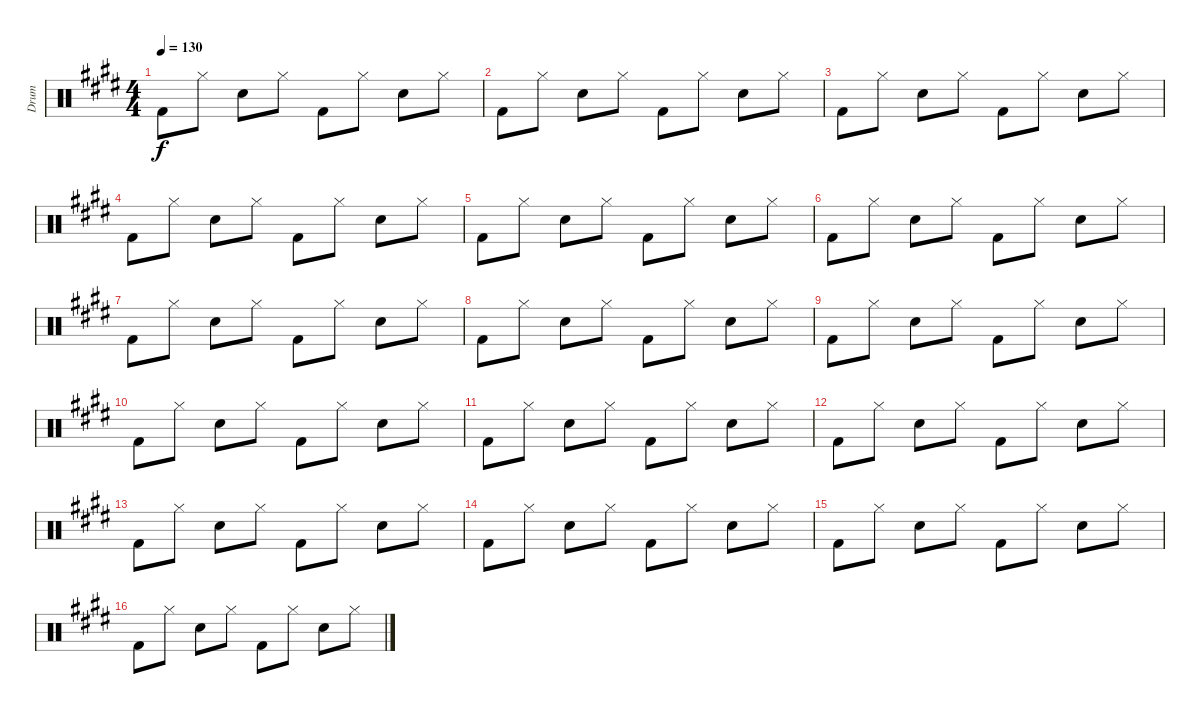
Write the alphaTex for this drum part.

\track ("Drum" "Drum") {instrument percussion}
\staff {score}
\articulation defaults
\ts (4 4)
\tempo 130
\clef neutral
\ks c#minor "Kick (hit) 2".8{dy f} "Hi-Hat (closed)".8 "Electric Snare (hit)".8 "Hi-Hat (closed)".8 "Kick (hit) 2".8 "Hi-Hat (closed)".8 "Electric Snare (hit)".8 "Hi-Hat (closed)".8
|
"Kick (hit) 2".8 "Hi-Hat (closed)".8 "Electric Snare (hit)".8 "Hi-Hat (closed)".8 "Kick (hit) 2".8 "Hi-Hat (closed)".8 "Electric Snare (hit)".8 "Hi-Hat (closed)".8 |
"Kick (hit) 2".8 "Hi-Hat (closed)".8 "Electric Snare (hit)".8 "Hi-Hat (closed)".8 "Kick (hit) 2".8 "Hi-Hat (closed)".8 "Electric Snare (hit)".8 "Hi-Hat (closed)".8 |
"Kick (hit) 2".8 "Hi-Hat (closed)".8 "Electric Snare (hit)".8 "Hi-Hat (closed)".8 "Kick (hit) 2".8 "Hi-Hat (closed)".8 "Electric Snare (hit)".8 "Hi-Hat (closed)".8 |
"Kick (hit) 2".8 "Hi-Hat (closed)".8 "Electric Snare (hit)".8 "Hi-Hat (closed)".8 "Kick (hit) 2".8 "Hi-Hat (closed)".8 "Electric Snare (hit)".8 "Hi-Hat (closed)".8 |
"Kick (hit) 2".8 "Hi-Hat (closed)".8 "Electric Snare (hit)".8 "Hi-Hat (closed)".8 "Kick (hit) 2".8 "Hi-Hat (closed)".8 "Electric Snare (hit)".8 "Hi-Hat (closed)".8 |
"Kick (hit) 2".8 "Hi-Hat (closed)".8 "Electric Snare (hit)".8 "Hi-Hat (closed)".8 "Kick (hit) 2".8 "Hi-Hat (closed)".8 "Electric Snare (hit)".8 "Hi-Hat (closed)".8 |
"Kick (hit) 2".8 "Hi-Hat (closed)".8 "Electric Snare (hit)".8 "Hi-Hat (closed)".8 "Kick (hit) 2".8 "Hi-Hat (closed)".8 "Electric Snare (hit)".8 "Hi-Hat (closed)".8 |
"Kick (hit) 2".8 "Hi-Hat (closed)".8 "Electric Snare (hit)".8 "Hi-Hat (closed)".8 "Kick (hit) 2".8 "Hi-Hat (closed)".8 "Electric Snare (hit)".8 "Hi-Hat (closed)".8 |
"Kick (hit) 2".8 "Hi-Hat (closed)".8 "Electric Snare (hit)".8 "Hi-Hat (closed)".8 "Kick (hit) 2".8 "Hi-Hat (closed)".8 "Electric Snare (hit)".8 "Hi-Hat (closed)".8 |
"Kick (hit) 2".8 "Hi-Hat (closed)".8 "Electric Snare (hit)".8 "Hi-Hat (closed)".8 "Kick (hit) 2".8 "Hi-Hat (closed)".8 "Electric Snare (hit)".8 "Hi-Hat (closed)".8 |
"Kick (hit) 2".8 "Hi-Hat (closed)".8 "Electric Snare (hit)".8 "Hi-Hat (closed)".8 "Kick (hit) 2".8 "Hi-Hat (closed)".8 "Electric Snare (hit)".8 "Hi-Hat (closed)".8 |
"Kick (hit) 2".8 "Hi-Hat (closed)".8 "Electric Snare (hit)".8 "Hi-Hat (closed)".8 "Kick (hit) 2".8 "Hi-Hat (closed)".8 "Electric Snare (hit)".8 "Hi-Hat (closed)".8 |
"Kick (hit) 2".8 "Hi-Hat (closed)".8 "Electric Snare (hit)".8 "Hi-Hat (closed)".8 "Kick (hit) 2".8 "Hi-Hat (closed)".8 "Electric Snare (hit)".8 "Hi-Hat (closed)".8 |
"Kick (hit) 2".8 "Hi-Hat (closed)".8 "Electric Snare (hit)".8 "Hi-Hat (closed)".8 "Kick (hit) 2".8 "Hi-Hat (closed)".8 "Electric Snare (hit)".8 "Hi-Hat (closed)".8 |
"Kick (hit) 2".8 "Hi-Hat (closed)".8 "Electric Snare (hit)".8 "Hi-Hat (closed)".8 "Kick (hit) 2".8 "Hi-Hat (closed)".8 "Electric Snare (hit)".8 "Hi-Hat (closed)".8
